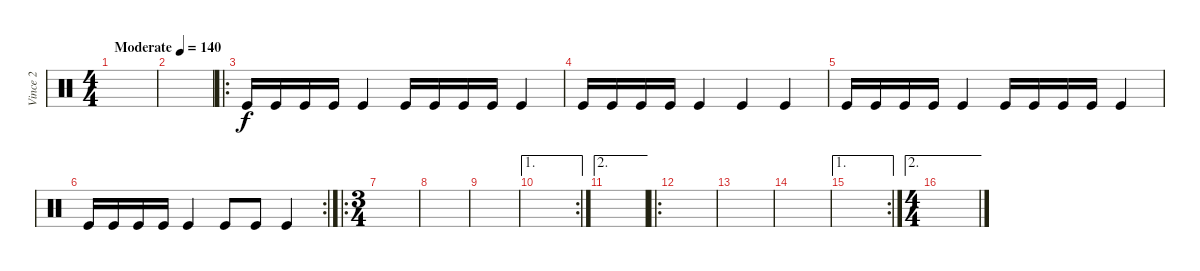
\track ("Vince 2" "Vince 2") {instrument percussion}
\staff {score}
\articulation defaults
\ts (4 4)
\tempo (140 "Moderate")
\clef neutral
\ks c
|
|
\ro "Kick (hit)".16 "Kick (hit)".16 "Kick (hit)".16 "Kick (hit)".16 "Kick (hit)".4 "Kick (hit)".16 "Kick (hit)".16 "Kick (hit)".16 "Kick (hit)".16 "Kick (hit)".4
|
"Kick (hit)".16 "Kick (hit)".16 "Kick (hit)".16 "Kick (hit)".16 "Kick (hit)".4 "Kick (hit)".4 "Kick (hit)".4 |
"Kick (hit)".16 "Kick (hit)".16 "Kick (hit)".16 "Kick (hit)".16 "Kick (hit)".4 "Kick (hit)".16 "Kick (hit)".16 "Kick (hit)".16 "Kick (hit)".16 "Kick (hit)".4 |
\rc 2 "Kick (hit)".16 "Kick (hit)".16 "Kick (hit)".16 "Kick (hit)".16 "Kick (hit)".4 "Kick (hit)".8 "Kick (hit)".8 "Kick (hit)".4
|
\ro
\ts (3 4)
|
|
|
\ae 1
\rc 2
|
\ae 2
|
\ro
|
|
|
\ae 1
\rc 2
|
\ae 2
\ts (4 4)
